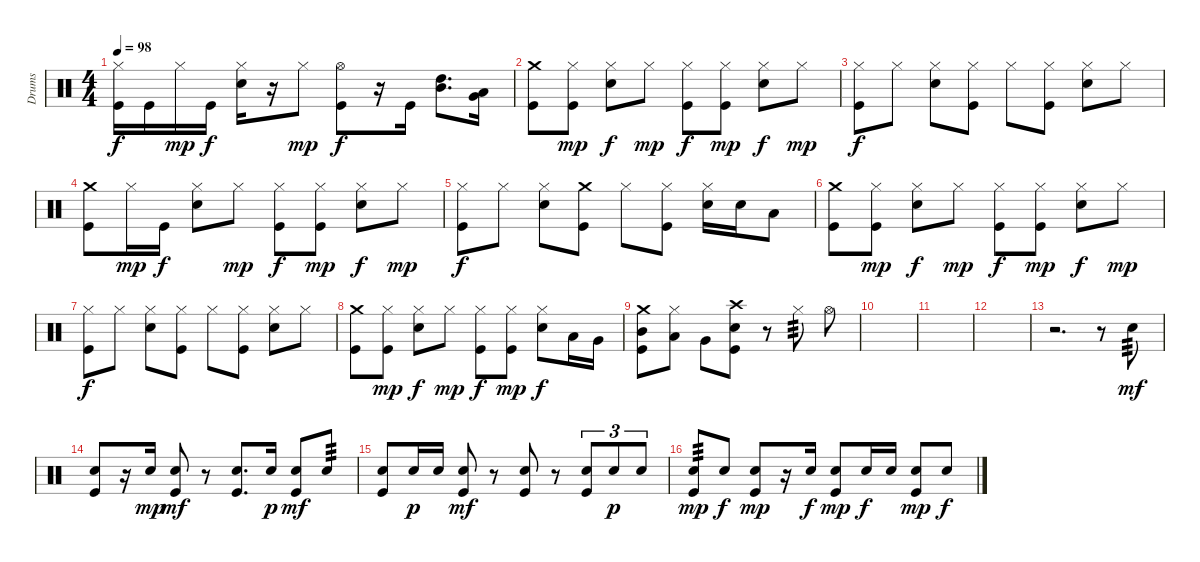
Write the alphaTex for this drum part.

\track ("Drums" "Drums") {instrument percussion}
\staff {score}
\articulation defaults
\ts (4 4)
\tempo 98
\clef neutral
\ks c
("Hi-Hat (closed)" "Kick (hit)").16{dy f} "Kick (hit)".16 "Hi-Hat (closed)".16{dy mp} "Kick (hit)".16{dy f} ("Hi-Hat (closed)" "Snare (hit) 2").16 r.16 "Hi-Hat (closed)".8{dy mp} ("Hi-Hat (open)" "Kick (hit)").8{dy f} r.16 "Kick (hit)".16 ("High Tom (hit)" "Mid Tom (hit)").8{d} ("Low Floor Tom (hit)" "Very Low Tom (hit)").16 |
("Crash medium (hit)" "Kick (hit)").8 ("Hi-Hat (closed)" "Kick (hit)").8{dy mp} ("Hi-Hat (closed)" "Snare (hit) 2").8{dy f} "Hi-Hat (closed)".8{dy mp} ("Hi-Hat (closed)" "Kick (hit)").8{dy f} ("Hi-Hat (closed)" "Kick (hit)").8{dy mp} ("Hi-Hat (closed)" "Snare (hit) 2").8{dy f} "Hi-Hat (closed)".8{dy mp} |
("Hi-Hat (closed)" "Kick (hit)").8{dy f} "Hi-Hat (closed)".8 ("Hi-Hat (closed)" "Snare (hit) 2").8 ("Hi-Hat (closed)" "Kick (hit)").8 "Hi-Hat (closed)".8 ("Hi-Hat (closed)" "Kick (hit)").8 ("Hi-Hat (closed)" "Snare (hit) 2").8 "Hi-Hat (closed)".8 |
("Crash medium (hit)" "Kick (hit)").8 "Hi-Hat (closed)".16{dy mp} "Kick (hit)".16{dy f} ("Hi-Hat (closed)" "Snare (hit) 2").8 "Hi-Hat (closed)".8{dy mp} ("Hi-Hat (closed)" "Kick (hit)").8{dy f} ("Hi-Hat (closed)" "Kick (hit)").8{dy mp} ("Hi-Hat (closed)" "Snare (hit) 2").8{dy f} "Hi-Hat (closed)".8{dy mp} |
("Hi-Hat (closed)" "Kick (hit)").8{dy f} "Hi-Hat (closed)".8 ("Hi-Hat (closed)" "Snare (hit) 2").8 ("Crash medium (hit)" "Kick (hit)").8 "Hi-Hat (closed)".8 ("Hi-Hat (closed)" "Kick (hit)").8 ("Hi-Hat (closed)" "Snare (hit) 2").16 "Snare (hit) 2".16 "Low Tom (hit)".8 |
("Crash medium (hit)" "Kick (hit)").8 ("Hi-Hat (closed)" "Kick (hit)").8{dy mp} ("Hi-Hat (closed)" "Snare (hit) 2").8{dy f} "Hi-Hat (closed)".8{dy mp} ("Hi-Hat (closed)" "Kick (hit)").8{dy f} ("Hi-Hat (closed)" "Kick (hit)").8{dy mp} ("Hi-Hat (closed)" "Snare (hit) 2").8{dy f} "Hi-Hat (closed)".8{dy mp} |
("Hi-Hat (closed)" "Kick (hit)").8{dy f} "Hi-Hat (closed)".8 ("Hi-Hat (closed)" "Snare (hit) 2").8 ("Hi-Hat (closed)" "Kick (hit)").8 "Hi-Hat (closed)".8 ("Hi-Hat (closed)" "Kick (hit)").8 ("Hi-Hat (closed)" "Snare (hit) 2").8 "Hi-Hat (closed)".8 |
("Crash medium (hit)" "Kick (hit)").8 ("Hi-Hat (closed)" "Kick (hit)").8{dy mp} ("Hi-Hat (closed)" "Snare (hit) 2").8{dy f} "Hi-Hat (closed)".8{dy mp} ("Hi-Hat (closed)" "Kick (hit)").8{dy f} ("Hi-Hat (closed)" "Kick (hit)").8{dy mp} ("Hi-Hat (closed)" "Snare (hit) 2").8{dy f} "Low Tom (hit)".16 "Very Low Tom (hit)".16 |
("Crash medium (hit)" "Mid Tom (hit)" "Kick (hit)").8 ("Hi-Hat (closed)" "Low Tom (hit)").8 "Very Low Tom (hit)".8 ("Crash high (hit)" "Snare (hit) 2" "Kick (hit)").8 r.8 "Hi-Hat (closed)".8{tp 3} "Hi-Hat (open)".8 |
|
|
|
r.2{d} r.8 "Snare (hit) 2".8{tp 3 dy mf} |
("Snare (hit) 2" "Kick (hit)").8 r.16 "Snare (hit) 2".16{dy mp} ("Snare (hit) 2" "Kick (hit)").8{dy mf} r.8 ("Snare (hit) 2" "Kick (hit)").8{d} "Snare (hit) 2".16{dy p} ("Snare (hit) 2" "Kick (hit)").8{dy mf} "Snare (hit) 2".8{tp 3} |
("Snare (hit) 2" "Kick (hit)").8 "Snare (hit) 2".16{dy p} "Snare (hit) 2".16 ("Snare (hit) 2" "Kick (hit)").8{dy mf} r.8 ("Snare (hit) 2" "Kick (hit)").8 r.8 ("Snare (hit) 2" "Kick (hit)").8{tu (3 2)} "Snare (hit) 2".8{tu (3 2) dy p} "Snare (hit) 2".8{tu (3 2)} |
("Snare (hit) 2" "Kick (hit)").8{tp 3 dy mp} "Snare (hit) 2".8{dy f} ("Snare (hit) 2" "Kick (hit)").8{dy mp} r.16 "Snare (hit) 2".16{dy f} ("Snare (hit) 2" "Kick (hit)").8{dy mp} "Snare (hit) 2".16{dy f} "Snare (hit) 2".16 ("Snare (hit) 2" "Kick (hit)").8{dy mp} "Snare (hit) 2".8{dy f}
